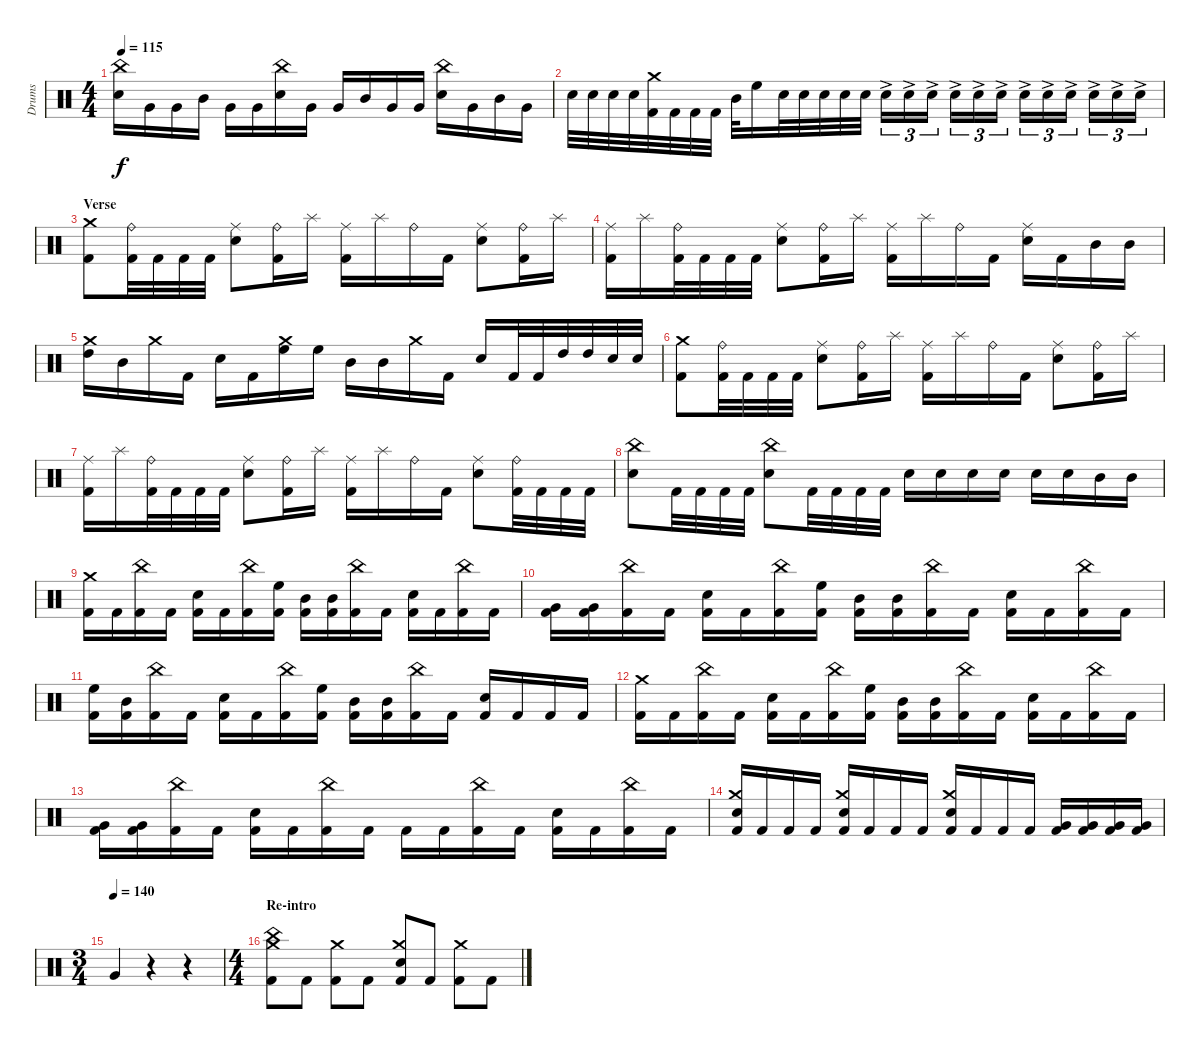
\track ("Drums" "Drums") {instrument percussion}
\staff {score}
\articulation defaults
\ts (4 4)
\tempo 115
\clef neutral
\ks c
("China (hit)" "Snare (hit) 2").16{dy f} "Very Low Tom (hit)".16 "Very Low Tom (hit)".16 "Mid Tom (hit)".16 "Very Low Tom (hit)".16 "Very Low Tom (hit)".16 ("China (hit)" "Snare (hit) 2").16 "Very Low Tom (hit)".16 "Very Low Tom (hit)".16 "Mid Tom (hit)".16 "Very Low Tom (hit)".16 "Very Low Tom (hit)".16 ("China (hit)" "Snare (hit) 2").16 "Very Low Tom (hit)".16 "Mid Tom (hit)".16 "Very Low Tom (hit)".16 |
"Snare (hit) 2".32 "Snare (hit) 2".32 "Snare (hit) 2".32 "Snare (hit) 2".32 ("Crash medium (hit)" "Kick (hit) 2").32 "Kick (hit) 2".32 "Kick (hit) 2".32 "Kick (hit) 2".32 "Mid Tom (hit)".32 "High Floor Tom (hit)".16 "Snare (hit) 2".32 "Snare (hit) 2".32 "Snare (hit) 2".32 "Snare (hit) 2".32 "Snare (hit) 2".32 "Snare (hit) 2"{ac}.16{tu (3 2)} "Snare (hit) 2"{ac}.16{tu (3 2)} "Snare (hit) 2"{ac}.16{tu (3 2)} "Snare (hit) 2"{ac}.16{tu (3 2)} "Snare (hit) 2"{ac}.16{tu (3 2)} "Snare (hit) 2"{ac}.16{tu (3 2)} "Snare (hit) 2"{ac}.16{tu (3 2)} "Snare (hit) 2"{ac}.16{tu (3 2)} "Snare (hit) 2"{ac}.16{tu (3 2)} "Snare (hit) 2"{ac}.16{tu (3 2)} "Snare (hit) 2"{ac}.16{tu (3 2)} "Snare (hit) 2"{ac}.16{tu (3 2)} |
\section ("" "Verse")
("Crash medium (hit)" "Kick (hit) 2").8 ("Ride (bell)" "Kick (hit) 2").32 "Kick (hit) 2".32 "Kick (hit) 2".32 "Kick (hit) 2".32 ("Ride (middle)" "Snare (hit) 2").8 ("Ride (bell)" "Kick (hit) 2").16 "Splash (hit)".16 ("Ride (middle)" "Kick (hit) 2").16 "Splash (hit)".16 "Ride (bell)".16 "Kick (hit) 2".16 ("Ride (middle)" "Snare (hit) 2").8 ("Ride (bell)" "Kick (hit) 2").16 "Splash (hit)".16 |
("Ride (middle)" "Kick (hit) 2").16 "Splash (hit)".16 ("Ride (bell)" "Kick (hit) 2").32 "Kick (hit) 2".32 "Kick (hit) 2".32 "Kick (hit) 2".32 ("Ride (middle)" "Snare (hit) 2").8 ("Ride (bell)" "Kick (hit) 2").16 "Splash (hit)".16 ("Ride (middle)" "Kick (hit) 2").16 "Splash (hit)".16 "Ride (bell)".16 "Kick (hit) 2".16 ("Ride (middle)" "Snare (hit) 2").16 "Kick (hit) 2".16 "Mid Tom (hit)".16 "Mid Tom (hit)".16 |
("Crash medium (hit)" "High Tom (hit)").16 "Mid Tom (hit)".16 "Crash medium (hit)".16 "Kick (hit) 2".16 "Snare (hit) 2".16 "Kick (hit) 2".16 ("Crash medium (hit)" "High Floor Tom (hit)").16 "High Floor Tom (hit)".16 "Mid Tom (hit)".16 "Mid Tom (hit)".16 "Crash medium (hit)".16 "Kick (hit) 2".16 "Snare (hit) 2".16 "Kick (hit) 2".32 "Kick (hit) 2".32 "High Tom (hit)".32 "High Tom (hit)".32 "Snare (hit) 2".32 "Snare (hit) 2".32 |
("Crash medium (hit)" "Kick (hit) 2").8 ("Ride (bell)" "Kick (hit) 2").32 "Kick (hit) 2".32 "Kick (hit) 2".32 "Kick (hit) 2".32 ("Ride (middle)" "Snare (hit) 2").8 ("Ride (bell)" "Kick (hit) 2").16 "Splash (hit)".16 ("Ride (middle)" "Kick (hit) 2").16 "Splash (hit)".16 "Ride (bell)".16 "Kick (hit) 2".16 ("Ride (middle)" "Snare (hit) 2").8 ("Ride (bell)" "Kick (hit) 2").16 "Splash (hit)".16 |
("Ride (middle)" "Kick (hit) 2").16 "Splash (hit)".16 ("Ride (bell)" "Kick (hit) 2").32 "Kick (hit) 2".32 "Kick (hit) 2".32 "Kick (hit) 2".32 ("Ride (middle)" "Snare (hit) 2").8 ("Ride (bell)" "Kick (hit) 2").16 "Splash (hit)".16 ("Ride (middle)" "Kick (hit) 2").16 "Splash (hit)".16 "Ride (bell)".16 "Kick (hit) 2".16 ("Ride (middle)" "Snare (hit) 2").8 ("Ride (bell)" "Kick (hit) 2").32 "Kick (hit) 2".32 "Kick (hit) 2".32 "Kick (hit) 2".32 |
("China (hit)" "Snare (hit) 2").8 "Kick (hit) 2".32 "Kick (hit) 2".32 "Kick (hit) 2".32 "Kick (hit) 2".32 ("China (hit)" "Snare (hit) 2").8 "Kick (hit) 2".32 "Kick (hit) 2".32 "Kick (hit) 2".32 "Kick (hit) 2".32 "Snare (hit) 2".16 "Snare (hit) 2".16 "Snare (hit) 2".16 "Snare (hit) 2".16 "Snare (hit) 2".16 "Snare (hit) 2".16 "Mid Tom (hit)".16 "Mid Tom (hit)".16 |
("Crash medium (hit)" "Kick (hit) 2").16 "Kick (hit) 2".16 ("China (hit)" "Kick (hit) 2").16 "Kick (hit) 2".16 ("Snare (hit) 2" "Kick (hit) 2").16 "Kick (hit) 2".16 ("China (hit)" "Kick (hit) 2").16 ("High Floor Tom (hit)" "Kick (hit) 2").16 ("Mid Tom (hit)" "Kick (hit) 2").16 ("Mid Tom (hit)" "Kick (hit) 2").16 ("China (hit)" "Kick (hit) 2").16 "Kick (hit) 2".16 ("Snare (hit) 2" "Kick (hit) 2").16 "Kick (hit) 2".16 ("China (hit)" "Kick (hit) 2").16 "Kick (hit) 2".16 |
("Very Low Tom (hit)" "Kick (hit) 2").16 ("Very Low Tom (hit)" "Kick (hit) 2").16 ("China (hit)" "Kick (hit) 2").16 "Kick (hit) 2".16 ("Snare (hit) 2" "Kick (hit) 2").16 "Kick (hit) 2".16 ("China (hit)" "Kick (hit) 2").16 ("High Floor Tom (hit)" "Kick (hit) 2").16 ("Mid Tom (hit)" "Kick (hit) 2").16 ("Mid Tom (hit)" "Kick (hit) 2").16 ("China (hit)" "Kick (hit) 2").16 "Kick (hit) 2".16 ("Snare (hit) 2" "Kick (hit) 2").16 "Kick (hit) 2".16 ("China (hit)" "Kick (hit) 2").16 "Kick (hit) 2".16 |
("High Floor Tom (hit)" "Kick (hit) 2").16 ("Mid Tom (hit)" "Kick (hit) 2").16 ("China (hit)" "Kick (hit) 2").16 "Kick (hit) 2".16 ("Snare (hit) 2" "Kick (hit) 2").16 "Kick (hit) 2".16 ("China (hit)" "Kick (hit) 2").16 ("High Floor Tom (hit)" "Kick (hit) 2").16 ("Mid Tom (hit)" "Kick (hit) 2").16 ("Mid Tom (hit)" "Kick (hit) 2").16 ("China (hit)" "Kick (hit) 2").16 "Kick (hit) 2".16 ("Snare (hit) 2" "Kick (hit) 2").16 "Kick (hit) 2".16 "Kick (hit) 2".16 "Kick (hit) 2".16 |
("Crash medium (hit)" "Kick (hit) 2").16 "Kick (hit) 2".16 ("China (hit)" "Kick (hit) 2").16 "Kick (hit) 2".16 ("Snare (hit) 2" "Kick (hit) 2").16 "Kick (hit) 2".16 ("China (hit)" "Kick (hit) 2").16 ("High Floor Tom (hit)" "Kick (hit) 2").16 ("Mid Tom (hit)" "Kick (hit) 2").16 ("Mid Tom (hit)" "Kick (hit) 2").16 ("China (hit)" "Kick (hit) 2").16 "Kick (hit) 2".16 ("Snare (hit) 2" "Kick (hit) 2").16 "Kick (hit) 2".16 ("China (hit)" "Kick (hit) 2").16 "Kick (hit) 2".16 |
("Very Low Tom (hit)" "Kick (hit) 2").16 ("Very Low Tom (hit)" "Kick (hit) 2").16 ("China (hit)" "Kick (hit) 2").16 "Kick (hit) 2".16 ("Snare (hit) 2" "Kick (hit) 2").16 "Kick (hit) 2".16 ("China (hit)" "Kick (hit) 2").16 "Kick (hit) 2".16 "Kick (hit) 2".16 "Kick (hit) 2".16 ("China (hit)" "Kick (hit) 2").16 "Kick (hit) 2".16 ("Snare (hit) 2" "Kick (hit) 2").16 "Kick (hit) 2".16 ("China (hit)" "Kick (hit) 2").16 "Kick (hit) 2".16 |
("Crash medium (hit)" "Snare (hit) 2" "Kick (hit) 2").16 "Kick (hit) 2".16 "Kick (hit) 2".16 "Kick (hit) 2".16 ("Crash medium (hit)" "Snare (hit) 2" "Kick (hit) 2").16 "Kick (hit) 2".16 "Kick (hit) 2".16 "Kick (hit) 2".16 ("Crash medium (hit)" "Snare (hit) 2" "Kick (hit) 2").16 "Kick (hit) 2".16 "Kick (hit) 2".16 "Kick (hit) 2".16 ("Very Low Tom (hit)" "Kick (hit) 2").16 ("Very Low Tom (hit)" "Kick (hit) 2").16 ("Very Low Tom (hit)" "Kick (hit) 2").16 ("Very Low Tom (hit)" "Kick (hit) 2").16 |
\ts (3 4)
\tempo (140)
"Very Low Tom (hit)".4 r.4 r.4 |
\ts (4 4)
\section ("" "Re-intro")
("Crash medium (hit)" "China (hit)" "Kick (hit) 2").8 "Kick (hit) 2".8 ("Crash medium (hit)" "Kick (hit) 2").8 "Kick (hit) 2".8 ("Crash medium (hit)" "Snare (hit) 2" "Kick (hit) 2").8 "Kick (hit) 2".8 ("Crash medium (hit)" "Kick (hit) 2").8 "Kick (hit) 2".8
